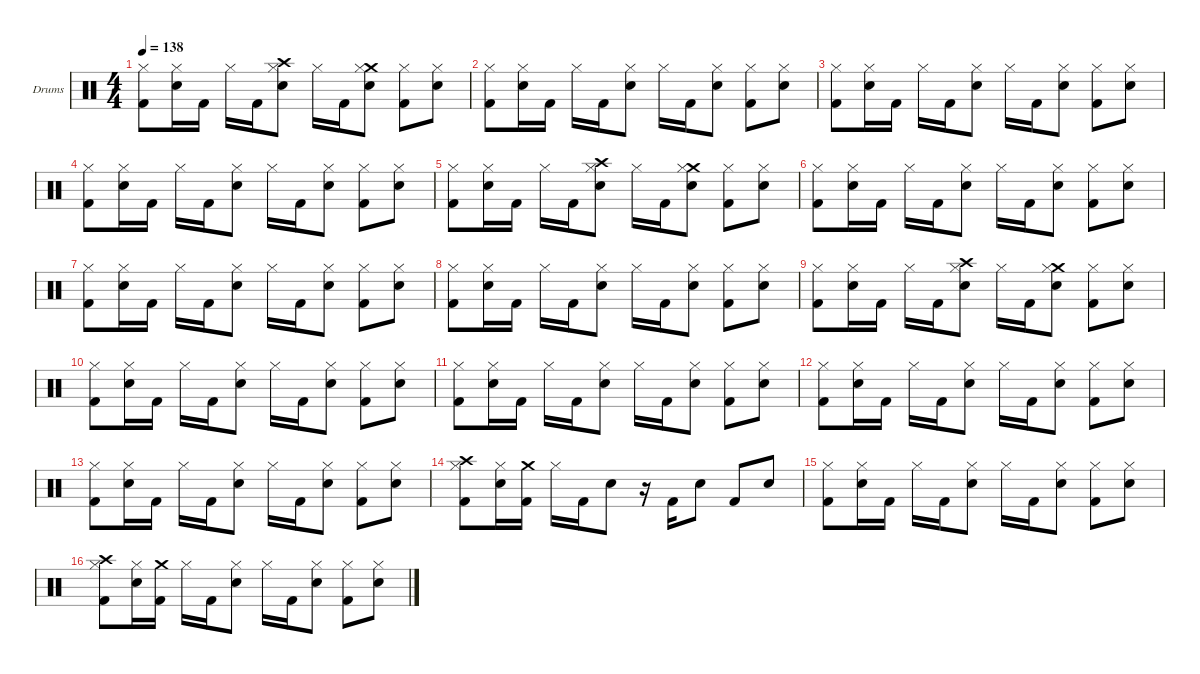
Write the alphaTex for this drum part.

\hideDynamics
\bracketExtendMode nobrackets
\firstSystemTrackNameOrientation horizontal
\otherSystemsTrackNameOrientation horizontal
\track ("Drumkit" "Drums") {instrument percussion}
\staff {score}
\articulation defaults
\ts (4 4)
\tempo 138
\clef neutral
\ks c
("Hi-Hat (closed)" "Kick (hit) 2").8{dy f beam Down} ("Snare (hit) 2" "Hi-Hat (closed)").16{beam Down} "Kick (hit) 2".16{beam Down} "Hi-Hat (closed)".16{beam Down} "Kick (hit) 2".16{beam Down} ("Crash high (hit)" "Snare (hit) 2" "Hi-Hat (closed)").8{beam Down} "Hi-Hat (closed)".16{beam Down} "Kick (hit) 2".16{beam Down} ("Crash medium (hit)" "Snare (hit) 2" "Hi-Hat (closed)").8{beam Down} ("Hi-Hat (closed)" "Kick (hit) 2").8{beam Down} ("Snare (hit) 2" "Hi-Hat (closed)").8{beam Down} |
("Hi-Hat (closed)" "Kick (hit) 2").8{beam Down} ("Snare (hit) 2" "Hi-Hat (closed)").16{beam Down} "Kick (hit) 2".16{beam Down} "Hi-Hat (closed)".16{beam Down} "Kick (hit) 2".16{beam Down} ("Snare (hit) 2" "Hi-Hat (closed)").8{beam Down} "Hi-Hat (closed)".16{beam Down} "Kick (hit) 2".16{beam Down} ("Snare (hit) 2" "Hi-Hat (closed)").8{beam Down} ("Hi-Hat (closed)" "Kick (hit) 2").8{beam Down} ("Snare (hit) 2" "Hi-Hat (closed)").8{beam Down} |
("Hi-Hat (closed)" "Kick (hit) 2").8{beam Down} ("Snare (hit) 2" "Hi-Hat (closed)").16{beam Down} "Kick (hit) 2".16{beam Down} "Hi-Hat (closed)".16{beam Down} "Kick (hit) 2".16{beam Down} ("Snare (hit) 2" "Hi-Hat (closed)").8{beam Down} "Hi-Hat (closed)".16{beam Down} "Kick (hit) 2".16{beam Down} ("Snare (hit) 2" "Hi-Hat (closed)").8{beam Down} ("Hi-Hat (closed)" "Kick (hit) 2").8{beam Down} ("Snare (hit) 2" "Hi-Hat (closed)").8{beam Down} |
("Hi-Hat (closed)" "Kick (hit) 2").8{beam Down} ("Snare (hit) 2" "Hi-Hat (closed)").16{beam Down} "Kick (hit) 2".16{beam Down} "Hi-Hat (closed)".16{beam Down} "Kick (hit) 2".16{beam Down} ("Snare (hit) 2" "Hi-Hat (closed)").8{beam Down} "Hi-Hat (closed)".16{beam Down} "Kick (hit) 2".16{beam Down} ("Snare (hit) 2" "Hi-Hat (closed)").8{beam Down} ("Hi-Hat (closed)" "Kick (hit) 2").8{beam Down} ("Snare (hit) 2" "Hi-Hat (closed)").8{beam Down} |
("Hi-Hat (closed)" "Kick (hit) 2").8{beam Down} ("Snare (hit) 2" "Hi-Hat (closed)").16{beam Down} "Kick (hit) 2".16{beam Down} "Hi-Hat (closed)".16{beam Down} "Kick (hit) 2".16{beam Down} ("Crash high (hit)" "Snare (hit) 2" "Hi-Hat (closed)").8{beam Down} "Hi-Hat (closed)".16{beam Down} "Kick (hit) 2".16{beam Down} ("Crash medium (hit)" "Snare (hit) 2" "Hi-Hat (closed)").8{beam Down} ("Hi-Hat (closed)" "Kick (hit) 2").8{beam Down} ("Snare (hit) 2" "Hi-Hat (closed)").8{beam Down} |
("Hi-Hat (closed)" "Kick (hit) 2").8{beam Down} ("Snare (hit) 2" "Hi-Hat (closed)").16{beam Down} "Kick (hit) 2".16{beam Down} "Hi-Hat (closed)".16{beam Down} "Kick (hit) 2".16{beam Down} ("Snare (hit) 2" "Hi-Hat (closed)").8{beam Down} "Hi-Hat (closed)".16{beam Down} "Kick (hit) 2".16{beam Down} ("Snare (hit) 2" "Hi-Hat (closed)").8{beam Down} ("Hi-Hat (closed)" "Kick (hit) 2").8{beam Down} ("Snare (hit) 2" "Hi-Hat (closed)").8{beam Down} |
("Hi-Hat (closed)" "Kick (hit) 2").8{beam Down} ("Snare (hit) 2" "Hi-Hat (closed)").16{beam Down} "Kick (hit) 2".16{beam Down} "Hi-Hat (closed)".16{beam Down} "Kick (hit) 2".16{beam Down} ("Snare (hit) 2" "Hi-Hat (closed)").8{beam Down} "Hi-Hat (closed)".16{beam Down} "Kick (hit) 2".16{beam Down} ("Snare (hit) 2" "Hi-Hat (closed)").8{beam Down} ("Hi-Hat (closed)" "Kick (hit) 2").8{beam Down} ("Snare (hit) 2" "Hi-Hat (closed)").8{beam Down} |
("Hi-Hat (closed)" "Kick (hit) 2").8{beam Down} ("Snare (hit) 2" "Hi-Hat (closed)").16{beam Down} "Kick (hit) 2".16{beam Down} "Hi-Hat (closed)".16{beam Down} "Kick (hit) 2".16{beam Down} ("Snare (hit) 2" "Hi-Hat (closed)").8{beam Down} "Hi-Hat (closed)".16{beam Down} "Kick (hit) 2".16{beam Down} ("Snare (hit) 2" "Hi-Hat (closed)").8{beam Down} ("Hi-Hat (closed)" "Kick (hit) 2").8{beam Down} ("Snare (hit) 2" "Hi-Hat (closed)").8{beam Down} |
("Hi-Hat (closed)" "Kick (hit) 2").8{beam Down} ("Snare (hit) 2" "Hi-Hat (closed)").16{beam Down} "Kick (hit) 2".16{beam Down} "Hi-Hat (closed)".16{beam Down} "Kick (hit) 2".16{beam Down} ("Crash high (hit)" "Snare (hit) 2" "Hi-Hat (closed)").8{beam Down} "Hi-Hat (closed)".16{beam Down} "Kick (hit) 2".16{beam Down} ("Crash medium (hit)" "Snare (hit) 2" "Hi-Hat (closed)").8{beam Down} ("Hi-Hat (closed)" "Kick (hit) 2").8{beam Down} ("Snare (hit) 2" "Hi-Hat (closed)").8{beam Down} |
("Hi-Hat (closed)" "Kick (hit) 2").8{beam Down} ("Snare (hit) 2" "Hi-Hat (closed)").16{beam Down} "Kick (hit) 2".16{beam Down} "Hi-Hat (closed)".16{beam Down} "Kick (hit) 2".16{beam Down} ("Snare (hit) 2" "Hi-Hat (closed)").8{beam Down} "Hi-Hat (closed)".16{beam Down} "Kick (hit) 2".16{beam Down} ("Snare (hit) 2" "Hi-Hat (closed)").8{beam Down} ("Hi-Hat (closed)" "Kick (hit) 2").8{beam Down} ("Snare (hit) 2" "Hi-Hat (closed)").8{beam Down} |
("Hi-Hat (closed)" "Kick (hit) 2").8{beam Down} ("Snare (hit) 2" "Hi-Hat (closed)").16{beam Down} "Kick (hit) 2".16{beam Down} "Hi-Hat (closed)".16{beam Down} "Kick (hit) 2".16{beam Down} ("Snare (hit) 2" "Hi-Hat (closed)").8{beam Down} "Hi-Hat (closed)".16{beam Down} "Kick (hit) 2".16{beam Down} ("Snare (hit) 2" "Hi-Hat (closed)").8{beam Down} ("Hi-Hat (closed)" "Kick (hit) 2").8{beam Down} ("Snare (hit) 2" "Hi-Hat (closed)").8{beam Down} |
("Hi-Hat (closed)" "Kick (hit) 2").8{beam Down} ("Snare (hit) 2" "Hi-Hat (closed)").16{beam Down} "Kick (hit) 2".16{beam Down} "Hi-Hat (closed)".16{beam Down} "Kick (hit) 2".16{beam Down} ("Snare (hit) 2" "Hi-Hat (closed)").8{beam Down} "Hi-Hat (closed)".16{beam Down} "Kick (hit) 2".16{beam Down} ("Snare (hit) 2" "Hi-Hat (closed)").8{beam Down} ("Hi-Hat (closed)" "Kick (hit) 2").8{beam Down} ("Snare (hit) 2" "Hi-Hat (closed)").8{beam Down} |
("Hi-Hat (closed)" "Kick (hit) 2").8{beam Down} ("Snare (hit) 2" "Hi-Hat (closed)").16{beam Down} "Kick (hit) 2".16{beam Down} "Hi-Hat (closed)".16{beam Down} "Kick (hit) 2".16{beam Down} ("Snare (hit) 2" "Hi-Hat (closed)").8{beam Down} "Hi-Hat (closed)".16{beam Down} "Kick (hit) 2".16{beam Down} ("Snare (hit) 2" "Hi-Hat (closed)").8{beam Down} ("Hi-Hat (closed)" "Kick (hit) 2").8{beam Down} ("Snare (hit) 2" "Hi-Hat (closed)").8{beam Down} |
("Crash high (hit)" "Hi-Hat (closed)" "Kick (hit) 2").8{beam Down} ("Snare (hit) 2" "Hi-Hat (closed)").16{beam Down} ("Crash medium (hit)" "Kick (hit) 2").16{beam Down} "Hi-Hat (closed)".16{beam Down} "Kick (hit) 2".16{beam Down} "Snare (hit) 2".8{beam Down} r.16{beam Down} "Kick (hit) 2".16{beam Up} "Snare (hit) 2".8{beam Up} "Kick (hit) 2".8{beam Up} "Snare (hit) 2".8{beam Up} |
("Hi-Hat (closed)" "Kick (hit) 2").8{beam Down} ("Snare (hit) 2" "Hi-Hat (closed)").16{beam Down} "Kick (hit) 2".16{beam Down} "Hi-Hat (closed)".16{beam Down} "Kick (hit) 2".16{beam Down} ("Snare (hit) 2" "Hi-Hat (closed)").8{beam Down} "Hi-Hat (closed)".16{beam Down} "Kick (hit) 2".16{beam Down} ("Snare (hit) 2" "Hi-Hat (closed)").8{beam Down} ("Hi-Hat (closed)" "Kick (hit) 2").8{beam Down} ("Snare (hit) 2" "Hi-Hat (closed)").8{beam Down} |
("Crash high (hit)" "Hi-Hat (closed)" "Kick (hit) 2").8{beam Down} ("Snare (hit) 2" "Hi-Hat (closed)").16{beam Down} ("Crash medium (hit)" "Kick (hit) 2").16{beam Down} "Hi-Hat (closed)".16{beam Down} "Kick (hit) 2".16{beam Down} ("Snare (hit) 2" "Hi-Hat (closed)").8{beam Down} "Hi-Hat (closed)".16{beam Down} "Kick (hit) 2".16{beam Down} ("Snare (hit) 2" "Hi-Hat (closed)").8{beam Down} ("Hi-Hat (closed)" "Kick (hit) 2").8{beam Down} ("Snare (hit) 2" "Hi-Hat (closed)").8{beam Down}
